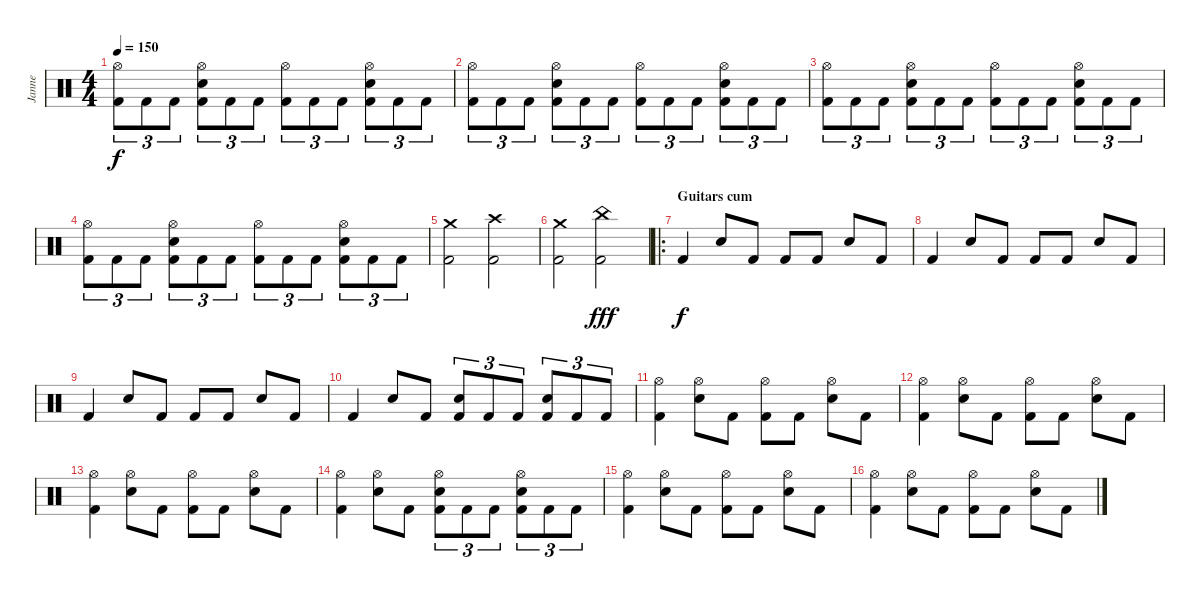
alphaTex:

\track ("Janne" "Janne") {instrument percussion}
\staff {score}
\articulation defaults
\ts (4 4)
\tempo 150
\clef neutral
\ks c
("Hi-Hat (open)" "Kick (hit) 2").8{tu (3 2) dy f} "Kick (hit) 2".8{tu (3 2)} "Kick (hit) 2".8{tu (3 2)} ("Hi-Hat (open)" "Electric Snare (hit)" "Kick (hit) 2").8{tu (3 2)} "Kick (hit) 2".8{tu (3 2)} "Kick (hit) 2".8{tu (3 2)} ("Hi-Hat (open)" "Kick (hit) 2").8{tu (3 2)} "Kick (hit) 2".8{tu (3 2)} "Kick (hit) 2".8{tu (3 2)} ("Hi-Hat (open)" "Electric Snare (hit)" "Kick (hit) 2").8{tu (3 2)} "Kick (hit) 2".8{tu (3 2)} "Kick (hit) 2".8{tu (3 2)} |
("Hi-Hat (open)" "Kick (hit) 2").8{tu (3 2)} "Kick (hit) 2".8{tu (3 2)} "Kick (hit) 2".8{tu (3 2)} ("Hi-Hat (open)" "Electric Snare (hit)" "Kick (hit) 2").8{tu (3 2)} "Kick (hit) 2".8{tu (3 2)} "Kick (hit) 2".8{tu (3 2)} ("Hi-Hat (open)" "Kick (hit) 2").8{tu (3 2)} "Kick (hit) 2".8{tu (3 2)} "Kick (hit) 2".8{tu (3 2)} ("Hi-Hat (open)" "Electric Snare (hit)" "Kick (hit) 2").8{tu (3 2)} "Kick (hit) 2".8{tu (3 2)} "Kick (hit) 2".8{tu (3 2)} |
("Hi-Hat (open)" "Kick (hit) 2").8{tu (3 2)} "Kick (hit) 2".8{tu (3 2)} "Kick (hit) 2".8{tu (3 2)} ("Hi-Hat (open)" "Electric Snare (hit)" "Kick (hit) 2").8{tu (3 2)} "Kick (hit) 2".8{tu (3 2)} "Kick (hit) 2".8{tu (3 2)} ("Hi-Hat (open)" "Kick (hit) 2").8{tu (3 2)} "Kick (hit) 2".8{tu (3 2)} "Kick (hit) 2".8{tu (3 2)} ("Hi-Hat (open)" "Electric Snare (hit)" "Kick (hit) 2").8{tu (3 2)} "Kick (hit) 2".8{tu (3 2)} "Kick (hit) 2".8{tu (3 2)} |
("Hi-Hat (open)" "Kick (hit) 2").8{tu (3 2)} "Kick (hit) 2".8{tu (3 2)} "Kick (hit) 2".8{tu (3 2)} ("Hi-Hat (open)" "Electric Snare (hit)" "Kick (hit) 2").8{tu (3 2)} "Kick (hit) 2".8{tu (3 2)} "Kick (hit) 2".8{tu (3 2)} ("Hi-Hat (open)" "Kick (hit) 2").8{tu (3 2)} "Kick (hit) 2".8{tu (3 2)} "Kick (hit) 2".8{tu (3 2)} ("Hi-Hat (open)" "Electric Snare (hit)" "Kick (hit) 2").8{tu (3 2)} "Kick (hit) 2".8{tu (3 2)} "Kick (hit) 2".8{tu (3 2)} |
("Crash medium (hit)" "Kick (hit) 2").2 ("Crash high (hit)" "Kick (hit) 2").2 |
("Crash medium (hit)" "Kick (hit) 2").2 ("China (hit)" "Kick (hit) 2").2{dy fff} |
\ro
\section ("" "Guitars cum")
"Kick (hit) 2".4{dy f} "Electric Snare (hit)".8 "Kick (hit) 2".8 "Kick (hit) 2".8 "Kick (hit) 2".8 "Electric Snare (hit)".8 "Kick (hit) 2".8 |
"Kick (hit) 2".4 "Electric Snare (hit)".8 "Kick (hit) 2".8 "Kick (hit) 2".8 "Kick (hit) 2".8 "Electric Snare (hit)".8 "Kick (hit) 2".8 |
"Kick (hit) 2".4 "Electric Snare (hit)".8 "Kick (hit) 2".8 "Kick (hit) 2".8 "Kick (hit) 2".8 "Electric Snare (hit)".8 "Kick (hit) 2".8 |
"Kick (hit) 2".4 "Electric Snare (hit)".8 "Kick (hit) 2".8 ("Electric Snare (hit)" "Kick (hit) 2").8{tu (3 2)} "Kick (hit) 2".8{tu (3 2)} "Kick (hit) 2".8{tu (3 2)} ("Electric Snare (hit)" "Kick (hit) 2").8{tu (3 2)} "Kick (hit) 2".8{tu (3 2)} "Kick (hit) 2".8{tu (3 2)} |
("Hi-Hat (open)" "Kick (hit) 2").4 ("Hi-Hat (open)" "Electric Snare (hit)").8 "Kick (hit) 2".8 ("Hi-Hat (open)" "Kick (hit) 2").8 "Kick (hit) 2".8 ("Hi-Hat (open)" "Electric Snare (hit)").8 "Kick (hit) 2".8 |
("Hi-Hat (open)" "Kick (hit) 2").4 ("Hi-Hat (open)" "Electric Snare (hit)").8 "Kick (hit) 2".8 ("Hi-Hat (open)" "Kick (hit) 2").8 "Kick (hit) 2".8 ("Hi-Hat (open)" "Electric Snare (hit)").8 "Kick (hit) 2".8 |
("Hi-Hat (open)" "Kick (hit) 2").4 ("Hi-Hat (open)" "Electric Snare (hit)").8 "Kick (hit) 2".8 ("Hi-Hat (open)" "Kick (hit) 2").8 "Kick (hit) 2".8 ("Hi-Hat (open)" "Electric Snare (hit)").8 "Kick (hit) 2".8 |
("Hi-Hat (open)" "Kick (hit) 2").4 ("Hi-Hat (open)" "Electric Snare (hit)").8 "Kick (hit) 2".8 ("Hi-Hat (open)" "Electric Snare (hit)" "Kick (hit) 2").8{tu (3 2)} "Kick (hit) 2".8{tu (3 2)} "Kick (hit) 2".8{tu (3 2)} ("Hi-Hat (open)" "Electric Snare (hit)" "Kick (hit) 2").8{tu (3 2)} "Kick (hit) 2".8{tu (3 2)} "Kick (hit) 2".8{tu (3 2)} |
("Hi-Hat (open)" "Kick (hit) 2").4 ("Hi-Hat (open)" "Electric Snare (hit)").8 "Kick (hit) 2".8 ("Hi-Hat (open)" "Kick (hit) 2").8 "Kick (hit) 2".8 ("Hi-Hat (open)" "Electric Snare (hit)").8 "Kick (hit) 2".8 |
("Hi-Hat (open)" "Kick (hit) 2").4 ("Hi-Hat (open)" "Electric Snare (hit)").8 "Kick (hit) 2".8 ("Hi-Hat (open)" "Kick (hit) 2").8 "Kick (hit) 2".8 ("Hi-Hat (open)" "Electric Snare (hit)").8 "Kick (hit) 2".8
